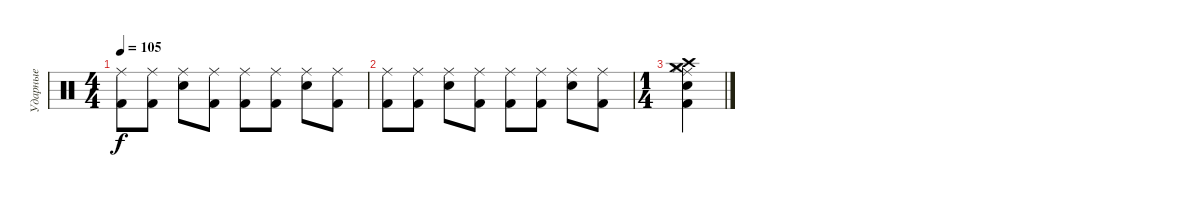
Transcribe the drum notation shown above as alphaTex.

\track ("Ударные" "Ударные") {instrument percussion}
\staff {score}
\articulation defaults
\ts (4 4)
\tempo 105
\clef neutral
\ks c
("Ride (middle)" "Kick (hit) 2").8{dy f} ("Ride (middle)" "Kick (hit) 2").8 ("Ride (middle)" "Electric Snare (hit)").8 ("Ride (middle)" "Kick (hit) 2").8 ("Ride (middle)" "Kick (hit) 2").8 ("Ride (middle)" "Kick (hit) 2").8 ("Ride (middle)" "Electric Snare (hit)").8 ("Ride (middle)" "Kick (hit) 2").8 |
("Ride (middle)" "Kick (hit) 2").8 ("Ride (middle)" "Kick (hit) 2").8 ("Ride (middle)" "Electric Snare (hit)").8 ("Ride (middle)" "Kick (hit) 2").8 ("Ride (middle)" "Kick (hit) 2").8 ("Ride (middle)" "Kick (hit) 2").8 ("Ride (middle)" "Electric Snare (hit)").8 ("Ride (middle)" "Kick (hit) 2").8 |
\ts (1 4)
("Ride (middle)" "Crash medium (hit)" "Crash high (hit)" "Hi-Hat (closed)" "Electric Snare (hit)" "Kick (hit) 2").4
